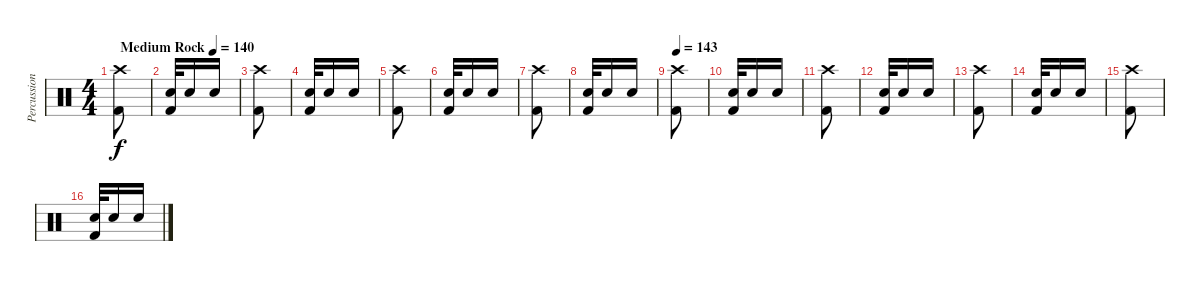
\track ("Percussion" "Percussion") {instrument percussion}
\staff {score}
\articulation defaults
\ts (4 4)
\tempo (140 "Medium Rock")
\clef neutral
\ks c
("Crash high (hit)" "Kick (hit) 2").8{dy f} |
("Electric Snare (hit)" "Kick (hit) 2").32 "Electric Snare (hit)".16 "Electric Snare (hit)".16 |
("Crash high (hit)" "Kick (hit) 2").8 |
("Electric Snare (hit)" "Kick (hit) 2").32 "Electric Snare (hit)".16 "Electric Snare (hit)".16 |
("Crash high (hit)" "Kick (hit) 2").8 |
("Electric Snare (hit)" "Kick (hit) 2").32 "Electric Snare (hit)".16 "Electric Snare (hit)".16 |
("Crash high (hit)" "Kick (hit) 2").8 |
("Electric Snare (hit)" "Kick (hit) 2").32 "Electric Snare (hit)".16 "Electric Snare (hit)".16 |
\tempo 143
("Crash high (hit)" "Kick (hit) 2").8 |
("Electric Snare (hit)" "Kick (hit) 2").32 "Electric Snare (hit)".16 "Electric Snare (hit)".16 |
("Crash high (hit)" "Kick (hit) 2").8 |
("Electric Snare (hit)" "Kick (hit) 2").32 "Electric Snare (hit)".16 "Electric Snare (hit)".16 |
("Crash high (hit)" "Kick (hit) 2").8 |
("Electric Snare (hit)" "Kick (hit) 2").32 "Electric Snare (hit)".16 "Electric Snare (hit)".16 |
("Crash high (hit)" "Kick (hit) 2").8 |
("Electric Snare (hit)" "Kick (hit) 2").32 "Electric Snare (hit)".16 "Electric Snare (hit)".16
